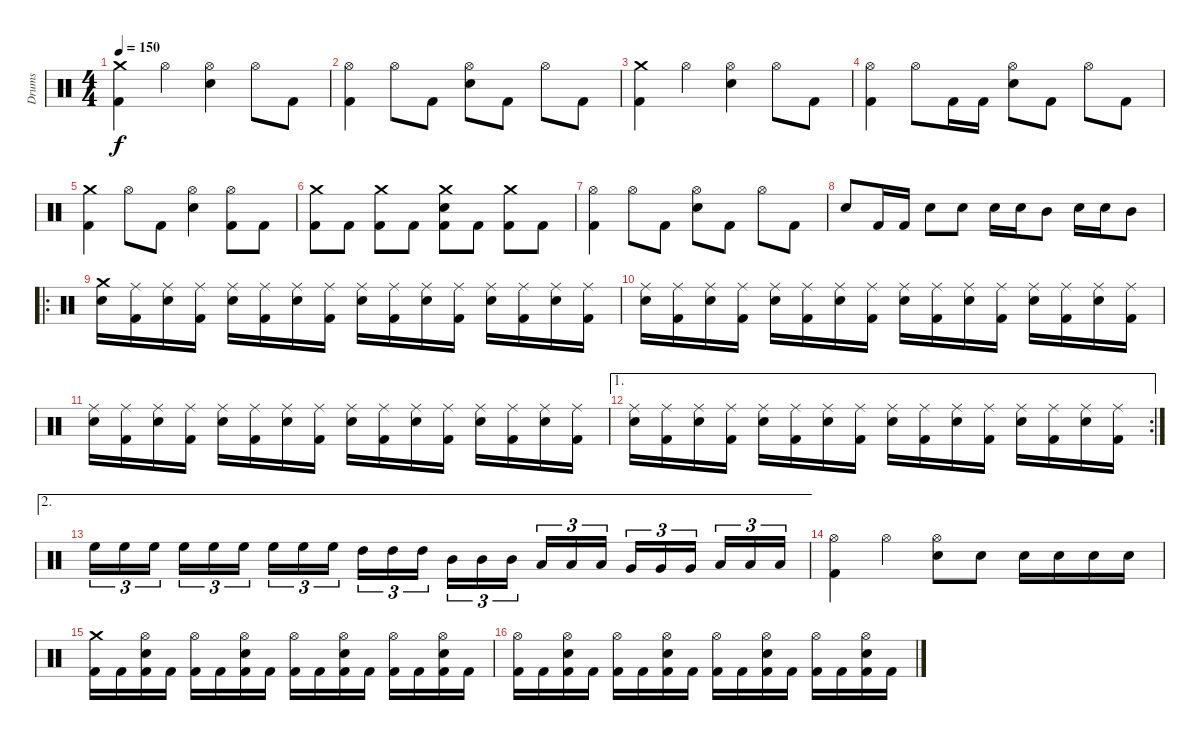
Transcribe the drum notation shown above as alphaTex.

\track ("Drums" "Drums") {instrument percussion}
\staff {score}
\articulation defaults
\ts (4 4)
\tempo 150
\clef neutral
\ks c
("Crash medium (hit)" "Kick (hit) 2").4{dy f} "Hi-Hat (open)".4 ("Hi-Hat (open)" "Electric Snare (hit)").4 "Hi-Hat (open)".8 "Kick (hit) 2".8 |
("Hi-Hat (open)" "Kick (hit) 2").4 "Hi-Hat (open)".8 "Kick (hit) 2".8 ("Hi-Hat (open)" "Electric Snare (hit)").8 "Kick (hit) 2".8 "Hi-Hat (open)".8 "Kick (hit) 2".8 |
("Crash medium (hit)" "Kick (hit) 2").4 "Hi-Hat (open)".4 ("Hi-Hat (open)" "Electric Snare (hit)").4 "Hi-Hat (open)".8 "Kick (hit) 2".8 |
("Hi-Hat (open)" "Kick (hit) 2").4 "Hi-Hat (open)".8 "Kick (hit) 2".16 "Kick (hit) 2".16 ("Hi-Hat (open)" "Electric Snare (hit)").8 "Kick (hit) 2".8 "Hi-Hat (open)".8 "Kick (hit) 2".8 |
("Crash medium (hit)" "Kick (hit) 2").4 "Hi-Hat (open)".8 "Kick (hit) 2".8 ("Hi-Hat (open)" "Electric Snare (hit)").4 ("Hi-Hat (open)" "Kick (hit) 2").8 "Kick (hit) 2".8 |
("Crash medium (hit)" "Kick (hit) 2").8 "Kick (hit) 2".8 ("Crash medium (hit)" "Kick (hit) 2").8 "Kick (hit) 2".8 ("Crash medium (hit)" "Electric Snare (hit)" "Kick (hit) 2").8 "Kick (hit) 2".8 ("Crash medium (hit)" "Kick (hit) 2").8 "Kick (hit) 2".8 |
("Hi-Hat (open)" "Kick (hit) 2").4 "Hi-Hat (open)".8 "Kick (hit) 2".8 ("Hi-Hat (open)" "Electric Snare (hit)").8 "Kick (hit) 2".8 "Hi-Hat (open)".8 "Kick (hit) 2".8 |
"Electric Snare (hit)".8 "Kick (hit) 2".16 "Kick (hit) 2".16 "Electric Snare (hit)".8 "Electric Snare (hit)".8 "Electric Snare (hit)".16 "Electric Snare (hit)".16 "Mid Tom (hit)".8 "Electric Snare (hit)".16 "Electric Snare (hit)".16 "Mid Tom (hit)".8 |
\ro
("Crash medium (hit)" "Electric Snare (hit)").16 ("Ride (middle)" "Kick (hit) 2").16 ("Ride (middle)" "Electric Snare (hit)").16 ("Ride (middle)" "Kick (hit) 2").16 ("Ride (middle)" "Electric Snare (hit)").16 ("Ride (middle)" "Kick (hit) 2").16 ("Ride (middle)" "Electric Snare (hit)").16 ("Ride (middle)" "Kick (hit) 2").16 ("Ride (middle)" "Electric Snare (hit)").16 ("Ride (middle)" "Kick (hit) 2").16 ("Ride (middle)" "Electric Snare (hit)").16 ("Ride (middle)" "Kick (hit) 2").16 ("Ride (middle)" "Electric Snare (hit)").16 ("Ride (middle)" "Kick (hit) 2").16 ("Ride (middle)" "Electric Snare (hit)").16 ("Ride (middle)" "Kick (hit) 2").16 |
("Ride (middle)" "Electric Snare (hit)").16 ("Ride (middle)" "Kick (hit) 2").16 ("Ride (middle)" "Electric Snare (hit)").16 ("Ride (middle)" "Kick (hit) 2").16 ("Ride (middle)" "Electric Snare (hit)").16 ("Ride (middle)" "Kick (hit) 2").16 ("Ride (middle)" "Electric Snare (hit)").16 ("Ride (middle)" "Kick (hit) 2").16 ("Ride (middle)" "Electric Snare (hit)").16 ("Ride (middle)" "Kick (hit) 2").16 ("Ride (middle)" "Electric Snare (hit)").16 ("Ride (middle)" "Kick (hit) 2").16 ("Ride (middle)" "Electric Snare (hit)").16 ("Ride (middle)" "Kick (hit) 2").16 ("Ride (middle)" "Electric Snare (hit)").16 ("Ride (middle)" "Kick (hit) 2").16 |
("Ride (middle)" "Electric Snare (hit)").16 ("Ride (middle)" "Kick (hit) 2").16 ("Ride (middle)" "Electric Snare (hit)").16 ("Ride (middle)" "Kick (hit) 2").16 ("Ride (middle)" "Electric Snare (hit)").16 ("Ride (middle)" "Kick (hit) 2").16 ("Ride (middle)" "Electric Snare (hit)").16 ("Ride (middle)" "Kick (hit) 2").16 ("Ride (middle)" "Electric Snare (hit)").16 ("Ride (middle)" "Kick (hit) 2").16 ("Ride (middle)" "Electric Snare (hit)").16 ("Ride (middle)" "Kick (hit) 2").16 ("Ride (middle)" "Electric Snare (hit)").16 ("Ride (middle)" "Kick (hit) 2").16 ("Ride (middle)" "Electric Snare (hit)").16 ("Ride (middle)" "Kick (hit) 2").16 |
\ae 1
\rc 2
("Ride (middle)" "Electric Snare (hit)").16 ("Ride (middle)" "Kick (hit) 2").16 ("Ride (middle)" "Electric Snare (hit)").16 ("Ride (middle)" "Kick (hit) 2").16 ("Ride (middle)" "Electric Snare (hit)").16 ("Ride (middle)" "Kick (hit) 2").16 ("Ride (middle)" "Electric Snare (hit)").16 ("Ride (middle)" "Kick (hit) 2").16 ("Ride (middle)" "Electric Snare (hit)").16 ("Ride (middle)" "Kick (hit) 2").16 ("Ride (middle)" "Electric Snare (hit)").16 ("Ride (middle)" "Kick (hit) 2").16 ("Ride (middle)" "Electric Snare (hit)").16 ("Ride (middle)" "Kick (hit) 2").16 ("Ride (middle)" "Electric Snare (hit)").16 ("Ride (middle)" "Kick (hit) 2").16 |
\ae 2 "High Floor Tom (hit)".16{tu (3 2)} "High Floor Tom (hit)".16{tu (3 2)} "High Floor Tom (hit)".16{tu (3 2)} "High Floor Tom (hit)".16{tu (3 2)} "High Floor Tom (hit)".16{tu (3 2)} "High Floor Tom (hit)".16{tu (3 2)} "High Floor Tom (hit)".16{tu (3 2)} "High Floor Tom (hit)".16{tu (3 2)} "High Floor Tom (hit)".16{tu (3 2)} "High Tom (hit)".16{tu (3 2)} "High Tom (hit)".16{tu (3 2)} "High Tom (hit)".16{tu (3 2)} "Mid Tom (hit)".16{tu (3 2)} "Mid Tom (hit)".16{tu (3 2)} "Mid Tom (hit)".16{tu (3 2)} "Low Tom (hit)".16{tu (3 2)} "Low Tom (hit)".16{tu (3 2)} "Low Tom (hit)".16{tu (3 2)} "Very Low Tom (hit)".16{tu (3 2)} "Very Low Tom (hit)".16{tu (3 2)} "Very Low Tom (hit)".16{tu (3 2)} "Low Floor Tom (hit)".16{tu (3 2)} "Low Floor Tom (hit)".16{tu (3 2)} "Low Floor Tom (hit)".16{tu (3 2)}
|
("Hi-Hat (open)" "Kick (hit) 2").4 "Hi-Hat (open)".4 ("Hi-Hat (open)" "Electric Snare (hit)").8 "Electric Snare (hit)".8 "Electric Snare (hit)".16 "Electric Snare (hit)".16 "Electric Snare (hit)".16 "Electric Snare (hit)".16 |
("Crash medium (hit)" "Kick (hit) 2").16 "Kick (hit) 2".16 ("Hi-Hat (open)" "Electric Snare (hit)" "Kick (hit) 2").16 "Kick (hit) 2".16 ("Hi-Hat (open)" "Kick (hit) 2").16 "Kick (hit) 2".16 ("Hi-Hat (open)" "Electric Snare (hit)" "Kick (hit) 2").16 "Kick (hit) 2".16 ("Hi-Hat (open)" "Kick (hit) 2").16 "Kick (hit) 2".16 ("Hi-Hat (open)" "Electric Snare (hit)" "Kick (hit) 2").16 "Kick (hit) 2".16 ("Hi-Hat (open)" "Kick (hit) 2").16 "Kick (hit) 2".16 ("Hi-Hat (open)" "Electric Snare (hit)" "Kick (hit) 2").16 "Kick (hit) 2".16 |
("Hi-Hat (open)" "Kick (hit) 2").16 "Kick (hit) 2".16 ("Hi-Hat (open)" "Electric Snare (hit)" "Kick (hit) 2").16 "Kick (hit) 2".16 ("Hi-Hat (open)" "Kick (hit) 2").16 "Kick (hit) 2".16 ("Hi-Hat (open)" "Electric Snare (hit)" "Kick (hit) 2").16 "Kick (hit) 2".16 ("Hi-Hat (open)" "Kick (hit) 2").16 "Kick (hit) 2".16 ("Hi-Hat (open)" "Electric Snare (hit)" "Kick (hit) 2").16 "Kick (hit) 2".16 ("Hi-Hat (open)" "Kick (hit) 2").16 "Kick (hit) 2".16 ("Hi-Hat (open)" "Electric Snare (hit)" "Kick (hit) 2").16 "Kick (hit) 2".16
